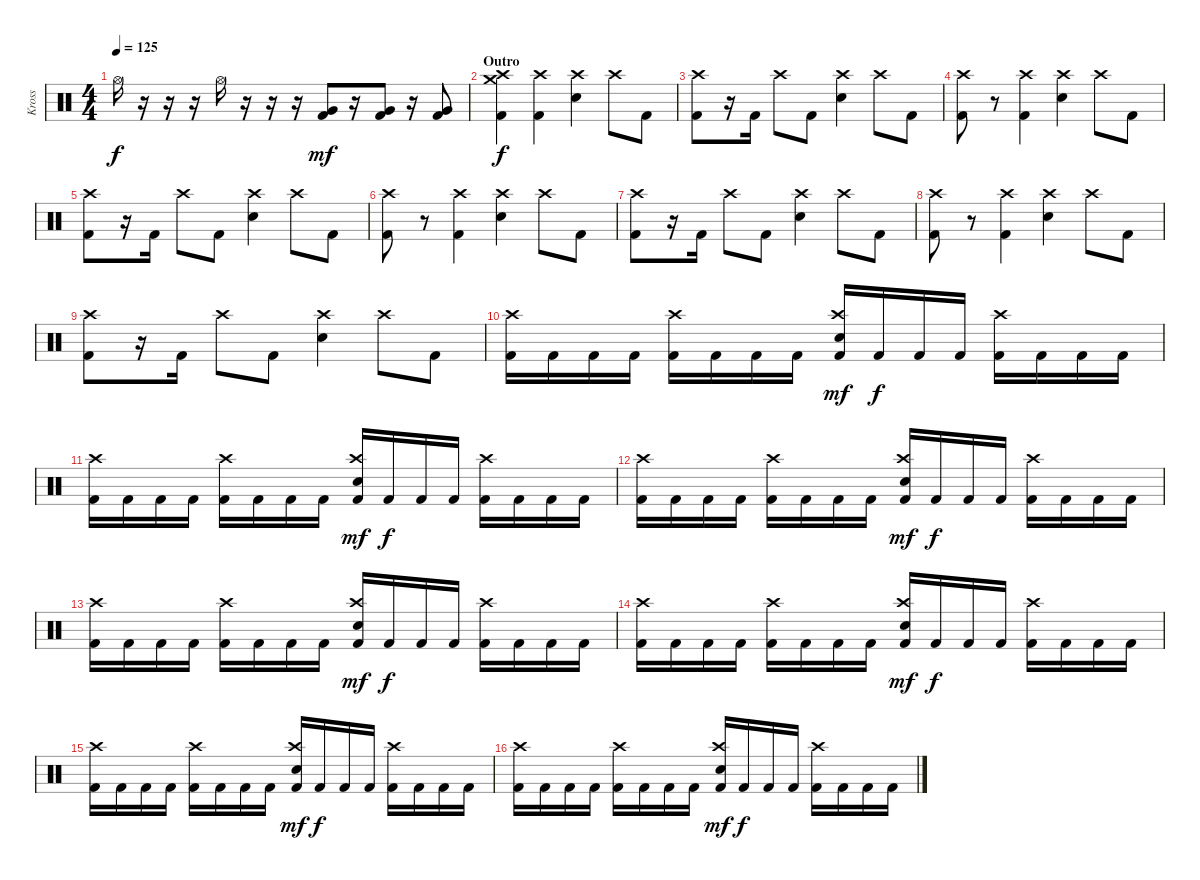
\track ("Kross" "Kross") {instrument percussion}
\staff {score}
\articulation defaults
\ts (4 4)
\tempo 125
\clef neutral
\ks c "Hi-Hat (open)".16{dy f}
r.16 r.16 r.16 "Hi-Hat (open)".16 r.16 r.16 r.16 ("Very Low Tom (hit)" "Kick (hit) 2").8{dy mf} r.16 ("Very Low Tom (hit)" "Kick (hit) 2").8 r.16 ("Very Low Tom (hit)" "Kick (hit) 2").8 |
\section ("" "Outro")
("Crash high (hit)" "Crash medium (hit)" "Kick (hit) 2").4{dy f} ("Crash high (hit)" "Kick (hit) 2").4 ("Crash high (hit)" "Electric Snare (hit)").4 "Crash high (hit)".8 "Kick (hit) 2".8 |
("Crash high (hit)" "Kick (hit) 2").8 r.16 "Kick (hit) 2".16 "Crash high (hit)".8 "Kick (hit) 2".8 ("Crash high (hit)" "Electric Snare (hit)").4 "Crash high (hit)".8 "Kick (hit) 2".8 |
("Crash high (hit)" "Kick (hit) 2").8 r.8 ("Crash high (hit)" "Kick (hit) 2").4 ("Crash high (hit)" "Electric Snare (hit)").4 "Crash high (hit)".8 "Kick (hit) 2".8 |
("Crash high (hit)" "Kick (hit) 2").8 r.16 "Kick (hit) 2".16 "Crash high (hit)".8 "Kick (hit) 2".8 ("Crash high (hit)" "Electric Snare (hit)").4 "Crash high (hit)".8 "Kick (hit) 2".8 |
("Crash high (hit)" "Kick (hit) 2").8 r.8 ("Crash high (hit)" "Kick (hit) 2").4 ("Crash high (hit)" "Electric Snare (hit)").4 "Crash high (hit)".8 "Kick (hit) 2".8 |
("Crash high (hit)" "Kick (hit) 2").8 r.16 "Kick (hit) 2".16 "Crash high (hit)".8 "Kick (hit) 2".8 ("Crash high (hit)" "Electric Snare (hit)").4 "Crash high (hit)".8 "Kick (hit) 2".8 |
("Crash high (hit)" "Kick (hit) 2").8 r.8 ("Crash high (hit)" "Kick (hit) 2").4 ("Crash high (hit)" "Electric Snare (hit)").4 "Crash high (hit)".8 "Kick (hit) 2".8 |
("Crash high (hit)" "Kick (hit) 2").8 r.16 "Kick (hit) 2".16 "Crash high (hit)".8 "Kick (hit) 2".8 ("Crash high (hit)" "Electric Snare (hit)").4 "Crash high (hit)".8 "Kick (hit) 2".8 |
("Crash high (hit)" "Kick (hit) 2").16 "Kick (hit) 2".16 "Kick (hit) 2".16 "Kick (hit) 2".16 ("Crash high (hit)" "Kick (hit) 2").16 "Kick (hit) 2".16 "Kick (hit) 2".16 "Kick (hit) 2".16 ("Crash high (hit)" "Electric Snare (hit)" "Kick (hit) 2").16{dy mf} "Kick (hit) 2".16{dy f} "Kick (hit) 2".16 "Kick (hit) 2".16 ("Crash high (hit)" "Kick (hit) 2").16 "Kick (hit) 2".16 "Kick (hit) 2".16 "Kick (hit) 2".16 |
("Crash high (hit)" "Kick (hit) 2").16 "Kick (hit) 2".16 "Kick (hit) 2".16 "Kick (hit) 2".16 ("Crash high (hit)" "Kick (hit) 2").16 "Kick (hit) 2".16 "Kick (hit) 2".16 "Kick (hit) 2".16 ("Crash high (hit)" "Electric Snare (hit)" "Kick (hit) 2").16{dy mf} "Kick (hit) 2".16{dy f} "Kick (hit) 2".16 "Kick (hit) 2".16 ("Crash high (hit)" "Kick (hit) 2").16 "Kick (hit) 2".16 "Kick (hit) 2".16 "Kick (hit) 2".16 |
("Crash high (hit)" "Kick (hit) 2").16 "Kick (hit) 2".16 "Kick (hit) 2".16 "Kick (hit) 2".16 ("Crash high (hit)" "Kick (hit) 2").16 "Kick (hit) 2".16 "Kick (hit) 2".16 "Kick (hit) 2".16 ("Crash high (hit)" "Electric Snare (hit)" "Kick (hit) 2").16{dy mf} "Kick (hit) 2".16{dy f} "Kick (hit) 2".16 "Kick (hit) 2".16 ("Crash high (hit)" "Kick (hit) 2").16 "Kick (hit) 2".16 "Kick (hit) 2".16 "Kick (hit) 2".16 |
("Crash high (hit)" "Kick (hit) 2").16 "Kick (hit) 2".16 "Kick (hit) 2".16 "Kick (hit) 2".16 ("Crash high (hit)" "Kick (hit) 2").16 "Kick (hit) 2".16 "Kick (hit) 2".16 "Kick (hit) 2".16 ("Crash high (hit)" "Electric Snare (hit)" "Kick (hit) 2").16{dy mf} "Kick (hit) 2".16{dy f} "Kick (hit) 2".16 "Kick (hit) 2".16 ("Crash high (hit)" "Kick (hit) 2").16 "Kick (hit) 2".16 "Kick (hit) 2".16 "Kick (hit) 2".16 |
("Crash high (hit)" "Kick (hit) 2").16 "Kick (hit) 2".16 "Kick (hit) 2".16 "Kick (hit) 2".16 ("Crash high (hit)" "Kick (hit) 2").16 "Kick (hit) 2".16 "Kick (hit) 2".16 "Kick (hit) 2".16 ("Crash high (hit)" "Electric Snare (hit)" "Kick (hit) 2").16{dy mf} "Kick (hit) 2".16{dy f} "Kick (hit) 2".16 "Kick (hit) 2".16 ("Crash high (hit)" "Kick (hit) 2").16 "Kick (hit) 2".16 "Kick (hit) 2".16 "Kick (hit) 2".16 |
("Crash high (hit)" "Kick (hit) 2").16 "Kick (hit) 2".16 "Kick (hit) 2".16 "Kick (hit) 2".16 ("Crash high (hit)" "Kick (hit) 2").16 "Kick (hit) 2".16 "Kick (hit) 2".16 "Kick (hit) 2".16 ("Crash high (hit)" "Electric Snare (hit)" "Kick (hit) 2").16{dy mf} "Kick (hit) 2".16{dy f} "Kick (hit) 2".16 "Kick (hit) 2".16 ("Crash high (hit)" "Kick (hit) 2").16 "Kick (hit) 2".16 "Kick (hit) 2".16 "Kick (hit) 2".16 |
("Crash high (hit)" "Kick (hit) 2").16 "Kick (hit) 2".16 "Kick (hit) 2".16 "Kick (hit) 2".16 ("Crash high (hit)" "Kick (hit) 2").16 "Kick (hit) 2".16 "Kick (hit) 2".16 "Kick (hit) 2".16 ("Crash high (hit)" "Electric Snare (hit)" "Kick (hit) 2").16{dy mf} "Kick (hit) 2".16{dy f} "Kick (hit) 2".16 "Kick (hit) 2".16 ("Crash high (hit)" "Kick (hit) 2").16 "Kick (hit) 2".16 "Kick (hit) 2".16 "Kick (hit) 2".16
